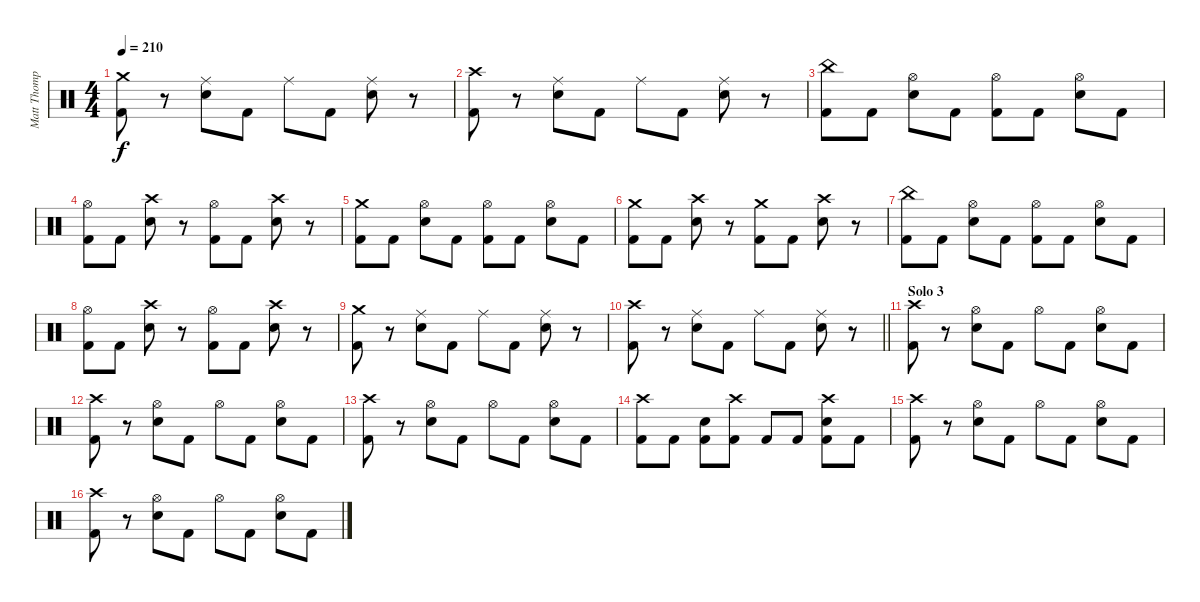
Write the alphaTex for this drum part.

\track ("Matt Thompson" "Matt Thomp") {instrument percussion}
\staff {score}
\articulation defaults
\ts (4 4)
\tempo 210
\clef neutral
\ks c
("Crash medium (hit)" "Kick (hit) 2").8{dy f} r.8 ("Ride (middle)" "Electric Snare (hit)").8 "Kick (hit) 2".8 "Ride (middle)".8 "Kick (hit) 2".8 ("Ride (middle)" "Electric Snare (hit)").8 r.8 |
("Crash high (hit)" "Kick (hit) 2").8 r.8 ("Ride (middle)" "Electric Snare (hit)").8 "Kick (hit) 2".8 "Ride (middle)".8 "Kick (hit) 2".8 ("Ride (middle)" "Electric Snare (hit)").8 r.8 |
("China (hit)" "Kick (hit) 2").8 "Kick (hit) 2".8 ("Hi-Hat (open)" "Electric Snare (hit)").8 "Kick (hit) 2".8 ("Hi-Hat (open)" "Kick (hit) 2").8 "Kick (hit) 2".8 ("Hi-Hat (open)" "Electric Snare (hit)").8 "Kick (hit) 2".8 |
("Hi-Hat (open)" "Kick (hit) 2").8 "Kick (hit) 2".8 ("Crash high (hit)" "Electric Snare (hit)").8 r.8 ("Hi-Hat (open)" "Kick (hit) 2").8 "Kick (hit) 2".8 ("Crash high (hit)" "Electric Snare (hit)").8 r.8 |
("Crash medium (hit)" "Kick (hit) 2").8 "Kick (hit) 2".8 ("Hi-Hat (open)" "Electric Snare (hit)").8 "Kick (hit) 2".8 ("Hi-Hat (open)" "Kick (hit) 2").8 "Kick (hit) 2".8 ("Hi-Hat (open)" "Electric Snare (hit)").8 "Kick (hit) 2".8 |
("Crash medium (hit)" "Kick (hit) 2").8 "Kick (hit) 2".8 ("Crash high (hit)" "Electric Snare (hit)").8 r.8 ("Crash medium (hit)" "Kick (hit) 2").8 "Kick (hit) 2".8 ("Crash high (hit)" "Electric Snare (hit)").8 r.8 |
("China (hit)" "Kick (hit) 2").8 "Kick (hit) 2".8 ("Hi-Hat (open)" "Electric Snare (hit)").8 "Kick (hit) 2".8 ("Hi-Hat (open)" "Kick (hit) 2").8 "Kick (hit) 2".8 ("Hi-Hat (open)" "Electric Snare (hit)").8 "Kick (hit) 2".8 |
("Hi-Hat (open)" "Kick (hit) 2").8 "Kick (hit) 2".8 ("Crash high (hit)" "Electric Snare (hit)").8 r.8 ("Hi-Hat (open)" "Kick (hit) 2").8 "Kick (hit) 2".8 ("Crash high (hit)" "Electric Snare (hit)").8 r.8 |
("Crash medium (hit)" "Kick (hit) 2").8 r.8 ("Ride (middle)" "Electric Snare (hit)").8 "Kick (hit) 2".8 "Ride (middle)".8 "Kick (hit) 2".8 ("Ride (middle)" "Electric Snare (hit)").8 r.8 |
\barLineRight lightlight
("Crash high (hit)" "Kick (hit) 2").8 r.8 ("Ride (middle)" "Electric Snare (hit)").8 "Kick (hit) 2".8 "Ride (middle)".8 "Kick (hit) 2".8 ("Ride (middle)" "Electric Snare (hit)").8 r.8 |
\section ("" "Solo 3")
("Crash high (hit)" "Kick (hit) 2").8 r.8 ("Hi-Hat (open)" "Electric Snare (hit)").8 "Kick (hit) 2".8 "Hi-Hat (open)".8 "Kick (hit) 2".8 ("Hi-Hat (open)" "Electric Snare (hit)").8 "Kick (hit) 2".8 |
("Crash high (hit)" "Kick (hit) 2").8 r.8 ("Hi-Hat (open)" "Electric Snare (hit)").8 "Kick (hit) 2".8 "Hi-Hat (open)".8 "Kick (hit) 2".8 ("Hi-Hat (open)" "Electric Snare (hit)").8 "Kick (hit) 2".8 |
("Crash high (hit)" "Kick (hit) 2").8 r.8 ("Hi-Hat (open)" "Electric Snare (hit)").8 "Kick (hit) 2".8 "Hi-Hat (open)".8 "Kick (hit) 2".8 ("Hi-Hat (open)" "Electric Snare (hit)").8 "Kick (hit) 2".8 |
("Crash high (hit)" "Kick (hit) 2").8 "Kick (hit) 2".8 ("Electric Snare (hit)" "Kick (hit) 2").8 ("Crash high (hit)" "Kick (hit) 2").8 "Kick (hit) 2".8 "Kick (hit) 2".8 ("Crash high (hit)" "Electric Snare (hit)" "Kick (hit) 2").8 "Kick (hit) 2".8 |
("Crash high (hit)" "Kick (hit) 2").8 r.8 ("Hi-Hat (open)" "Electric Snare (hit)").8 "Kick (hit) 2".8 "Hi-Hat (open)".8 "Kick (hit) 2".8 ("Hi-Hat (open)" "Electric Snare (hit)").8 "Kick (hit) 2".8 |
("Crash high (hit)" "Kick (hit) 2").8 r.8 ("Hi-Hat (open)" "Electric Snare (hit)").8 "Kick (hit) 2".8 "Hi-Hat (open)".8 "Kick (hit) 2".8 ("Hi-Hat (open)" "Electric Snare (hit)").8 "Kick (hit) 2".8
